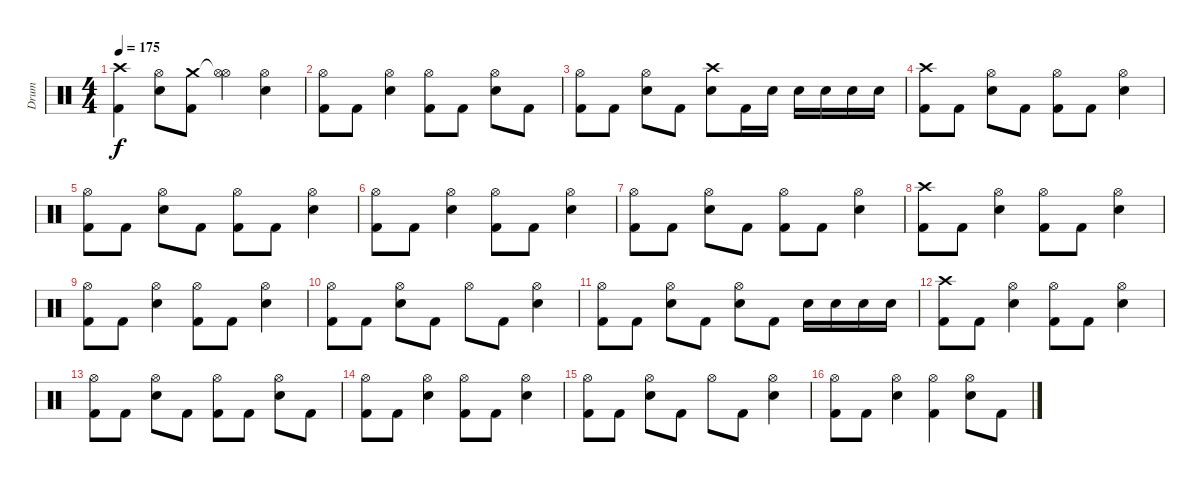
\track ("Drum" "Drum") {instrument percussion}
\staff {score}
\articulation defaults
\ts (4 4)
\tempo 175
\clef neutral
\ks c
("Crash high (hit)" "Kick (hit) 2").4{dy f} ("Hi-Hat (open)" "Electric Snare (hit)").8 ("Crash medium (hit)" "Kick (hit) 2").8 ("Hi-Hat (open)"{t} "Hi-Hat (open)").4 ("Hi-Hat (open)" "Electric Snare (hit)").4 |
("Hi-Hat (open)" "Kick (hit) 2").8 "Kick (hit) 2".8 ("Hi-Hat (open)" "Electric Snare (hit)").4 ("Hi-Hat (open)" "Kick (hit) 2").8 "Kick (hit) 2".8 ("Hi-Hat (open)" "Electric Snare (hit)").8 "Kick (hit) 2".8 |
("Hi-Hat (open)" "Kick (hit) 2").8 "Kick (hit) 2".8 ("Hi-Hat (open)" "Electric Snare (hit)").8 "Kick (hit) 2".8 ("Crash high (hit)" "Electric Snare (hit)").8 "Kick (hit) 2".16 "Electric Snare (hit)".16 "Electric Snare (hit)".16 "Electric Snare (hit)".16 "Electric Snare (hit)".16 "Electric Snare (hit)".16 |
("Crash high (hit)" "Kick (hit) 2").8 "Kick (hit) 2".8 ("Hi-Hat (open)" "Electric Snare (hit)").8 "Kick (hit) 2".8 ("Hi-Hat (open)" "Kick (hit) 2").8 "Kick (hit) 2".8 ("Hi-Hat (open)" "Electric Snare (hit)").4 |
("Hi-Hat (open)" "Kick (hit) 2").8 "Kick (hit) 2".8 ("Hi-Hat (open)" "Electric Snare (hit)").8 "Kick (hit) 2".8 ("Hi-Hat (open)" "Kick (hit) 2").8 "Kick (hit) 2".8 ("Hi-Hat (open)" "Electric Snare (hit)").4 |
("Hi-Hat (open)" "Kick (hit) 2").8 "Kick (hit) 2".8 ("Hi-Hat (open)" "Electric Snare (hit)").4 ("Hi-Hat (open)" "Kick (hit) 2").8 "Kick (hit) 2".8 ("Hi-Hat (open)" "Electric Snare (hit)").4 |
("Hi-Hat (open)" "Kick (hit) 2").8 "Kick (hit) 2".8 ("Hi-Hat (open)" "Electric Snare (hit)").8 "Kick (hit) 2".8 ("Hi-Hat (open)" "Kick (hit) 2").8 "Kick (hit) 2".8 ("Hi-Hat (open)" "Electric Snare (hit)").4 |
("Crash high (hit)" "Kick (hit) 2").8 "Kick (hit) 2".8 ("Hi-Hat (open)" "Electric Snare (hit)").4 ("Hi-Hat (open)" "Kick (hit) 2").8 "Kick (hit) 2".8 ("Hi-Hat (open)" "Electric Snare (hit)").4 |
("Hi-Hat (open)" "Kick (hit) 2").8 "Kick (hit) 2".8 ("Hi-Hat (open)" "Electric Snare (hit)").4 ("Hi-Hat (open)" "Kick (hit) 2").8 "Kick (hit) 2".8 ("Hi-Hat (open)" "Electric Snare (hit)").4 |
("Hi-Hat (open)" "Kick (hit) 2").8 "Kick (hit) 2".8 ("Hi-Hat (open)" "Electric Snare (hit)").8 "Kick (hit) 2".8 "Hi-Hat (open)".8 "Kick (hit) 2".8 ("Hi-Hat (open)" "Electric Snare (hit)").4 |
("Hi-Hat (open)" "Kick (hit) 2").8 "Kick (hit) 2".8 ("Hi-Hat (open)" "Electric Snare (hit)").8 "Kick (hit) 2".8 ("Hi-Hat (open)" "Electric Snare (hit)").8 "Kick (hit) 2".8 "Electric Snare (hit)".16 "Electric Snare (hit)".16 "Electric Snare (hit)".16 "Electric Snare (hit)".16 |
("Crash high (hit)" "Kick (hit) 2").8 "Kick (hit) 2".8 ("Hi-Hat (open)" "Electric Snare (hit)").4 ("Hi-Hat (open)" "Kick (hit) 2").8 "Kick (hit) 2".8 ("Hi-Hat (open)" "Electric Snare (hit)").4 |
("Hi-Hat (open)" "Kick (hit) 2").8 "Kick (hit) 2".8 ("Hi-Hat (open)" "Electric Snare (hit)").8 "Kick (hit) 2".8 ("Hi-Hat (open)" "Kick (hit) 2").8 "Kick (hit) 2".8 ("Hi-Hat (open)" "Electric Snare (hit)").8 "Kick (hit) 2".8 |
("Hi-Hat (open)" "Kick (hit) 2").8 "Kick (hit) 2".8 ("Hi-Hat (open)" "Electric Snare (hit)").4 ("Hi-Hat (open)" "Kick (hit) 2").8 "Kick (hit) 2".8 ("Hi-Hat (open)" "Electric Snare (hit)").4 |
("Hi-Hat (open)" "Kick (hit) 2").8 "Kick (hit) 2".8 ("Hi-Hat (open)" "Electric Snare (hit)").8 "Kick (hit) 2".8 "Hi-Hat (open)".8 "Kick (hit) 2".8 ("Hi-Hat (open)" "Electric Snare (hit)").4 |
("Hi-Hat (open)" "Kick (hit) 2").8 "Kick (hit) 2".8 ("Hi-Hat (open)" "Electric Snare (hit)").4 ("Hi-Hat (open)" "Kick (hit) 2").4 ("Hi-Hat (open)" "Electric Snare (hit)").8 "Kick (hit) 2".8
